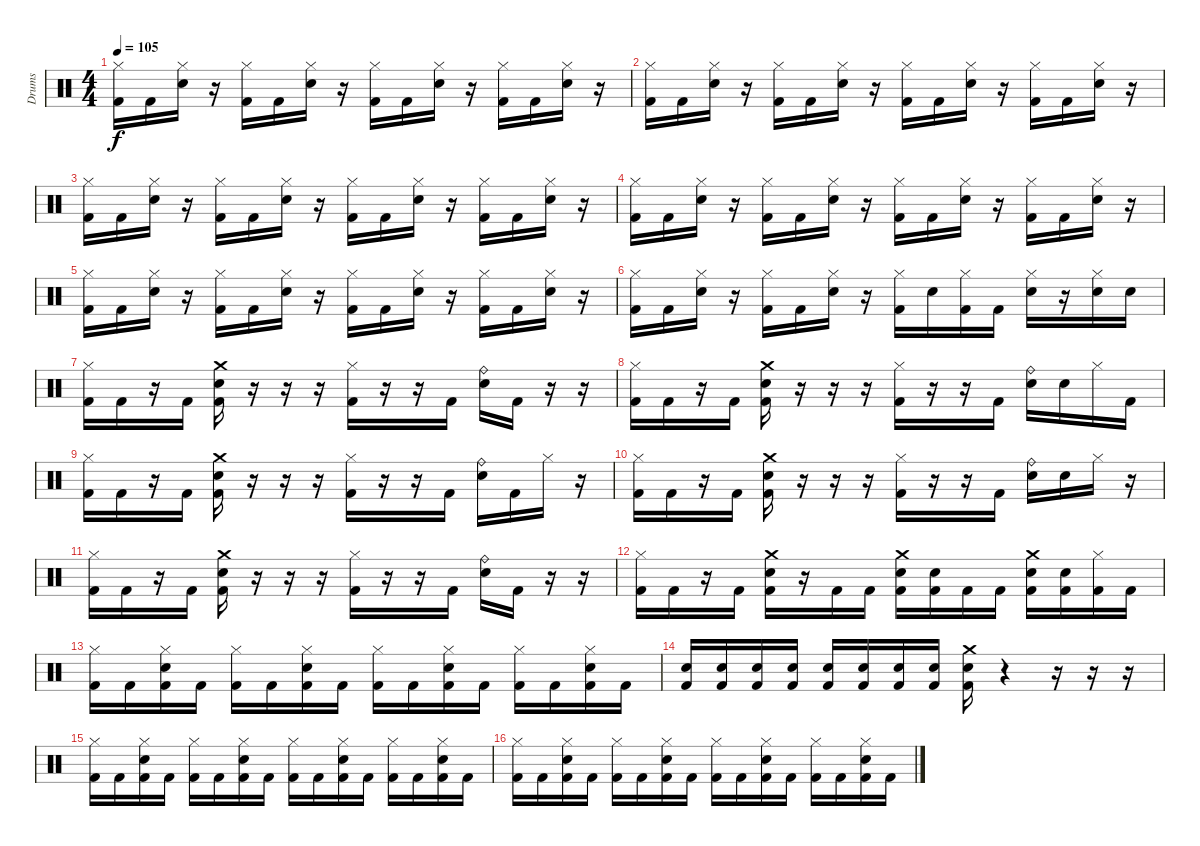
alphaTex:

\track ("Drums" "Drums") {instrument percussion}
\staff {score}
\articulation defaults
\ts (4 4)
\tempo 105
\clef neutral
\ks c
("Kick (hit) 2" "Hi-Hat (closed)").16{dy f} "Kick (hit) 2".16 ("Snare (hit) 2" "Hi-Hat (closed)").16 r.16 ("Kick (hit) 2" "Hi-Hat (closed)").16 "Kick (hit) 2".16 ("Snare (hit) 2" "Hi-Hat (closed)").16 r.16 ("Kick (hit) 2" "Hi-Hat (closed)").16 "Kick (hit) 2".16 ("Snare (hit) 2" "Hi-Hat (closed)").16 r.16 ("Kick (hit) 2" "Hi-Hat (closed)").16 "Kick (hit) 2".16 ("Snare (hit) 2" "Hi-Hat (closed)").16 r.16 |
("Kick (hit) 2" "Hi-Hat (closed)").16 "Kick (hit) 2".16 ("Snare (hit) 2" "Hi-Hat (closed)").16 r.16 ("Kick (hit) 2" "Hi-Hat (closed)").16 "Kick (hit) 2".16 ("Snare (hit) 2" "Hi-Hat (closed)").16 r.16 ("Kick (hit) 2" "Hi-Hat (closed)").16 "Kick (hit) 2".16 ("Snare (hit) 2" "Hi-Hat (closed)").16 r.16 ("Kick (hit) 2" "Hi-Hat (closed)").16 "Kick (hit) 2".16 ("Snare (hit) 2" "Hi-Hat (closed)").16 r.16 |
("Kick (hit) 2" "Hi-Hat (closed)").16 "Kick (hit) 2".16 ("Snare (hit) 2" "Hi-Hat (closed)").16 r.16 ("Kick (hit) 2" "Hi-Hat (closed)").16 "Kick (hit) 2".16 ("Snare (hit) 2" "Hi-Hat (closed)").16 r.16 ("Kick (hit) 2" "Hi-Hat (closed)").16 "Kick (hit) 2".16 ("Snare (hit) 2" "Hi-Hat (closed)").16 r.16 ("Kick (hit) 2" "Hi-Hat (closed)").16 "Kick (hit) 2".16 ("Snare (hit) 2" "Hi-Hat (closed)").16 r.16 |
("Kick (hit) 2" "Hi-Hat (closed)").16 "Kick (hit) 2".16 ("Snare (hit) 2" "Hi-Hat (closed)").16 r.16 ("Kick (hit) 2" "Hi-Hat (closed)").16 "Kick (hit) 2".16 ("Snare (hit) 2" "Hi-Hat (closed)").16 r.16 ("Kick (hit) 2" "Hi-Hat (closed)").16 "Kick (hit) 2".16 ("Snare (hit) 2" "Hi-Hat (closed)").16 r.16 ("Kick (hit) 2" "Hi-Hat (closed)").16 "Kick (hit) 2".16 ("Snare (hit) 2" "Hi-Hat (closed)").16 r.16 |
("Kick (hit) 2" "Hi-Hat (closed)").16 "Kick (hit) 2".16 ("Snare (hit) 2" "Hi-Hat (closed)").16 r.16 ("Kick (hit) 2" "Hi-Hat (closed)").16 "Kick (hit) 2".16 ("Snare (hit) 2" "Hi-Hat (closed)").16 r.16 ("Kick (hit) 2" "Hi-Hat (closed)").16 "Kick (hit) 2".16 ("Snare (hit) 2" "Hi-Hat (closed)").16 r.16 ("Kick (hit) 2" "Hi-Hat (closed)").16 "Kick (hit) 2".16 ("Snare (hit) 2" "Hi-Hat (closed)").16 r.16 |
("Kick (hit) 2" "Hi-Hat (closed)").16 "Kick (hit) 2".16 ("Snare (hit) 2" "Hi-Hat (closed)").16 r.16 ("Kick (hit) 2" "Hi-Hat (closed)").16 "Kick (hit) 2".16 ("Snare (hit) 2" "Hi-Hat (closed)").16 r.16 ("Kick (hit) 2" "Hi-Hat (closed)").16 "Snare (hit) 2".16 ("Kick (hit) 2" "Hi-Hat (closed)").16 "Kick (hit) 2".16 ("Snare (hit) 2" "Hi-Hat (closed)").16 r.16 ("Snare (hit) 2" "Hi-Hat (closed)").16 "Snare (hit) 2".16 |
("Kick (hit) 2" "Hi-Hat (closed)").16 "Kick (hit) 2".16 r.16 "Kick (hit) 2".16 ("Kick (hit) 2" "Snare (hit) 2" "Crash medium (hit)").16 r.16 r.16 r.16 ("Kick (hit) 2" "Hi-Hat (closed)").16 r.16 r.16 "Kick (hit) 2".16 ("Snare (hit) 2" "Ride (bell)").16 "Kick (hit) 2".16 r.16 r.16 |
("Kick (hit) 2" "Hi-Hat (closed)").16 "Kick (hit) 2".16 r.16 "Kick (hit) 2".16 ("Kick (hit) 2" "Snare (hit) 2" "Crash medium (hit)").16 r.16 r.16 r.16 ("Kick (hit) 2" "Hi-Hat (closed)").16 r.16 r.16 "Kick (hit) 2".16 ("Snare (hit) 2" "Ride (bell)").16 "Snare (hit) 2".16 "Hi-Hat (closed)".16 "Kick (hit) 2".16 |
("Kick (hit) 2" "Hi-Hat (closed)").16 "Kick (hit) 2".16 r.16 "Kick (hit) 2".16 ("Kick (hit) 2" "Snare (hit) 2" "Crash medium (hit)").16 r.16 r.16 r.16 ("Kick (hit) 2" "Hi-Hat (closed)").16 r.16 r.16 "Kick (hit) 2".16 ("Snare (hit) 2" "Ride (bell)").16 "Kick (hit) 2".16 "Hi-Hat (closed)".16 r.16 |
("Kick (hit) 2" "Hi-Hat (closed)").16 "Kick (hit) 2".16 r.16 "Kick (hit) 2".16 ("Kick (hit) 2" "Snare (hit) 2" "Crash medium (hit)").16 r.16 r.16 r.16 ("Kick (hit) 2" "Hi-Hat (closed)").16 r.16 r.16 "Kick (hit) 2".16 ("Snare (hit) 2" "Ride (bell)").16 "Snare (hit) 2".16 "Hi-Hat (closed)".16 r.16 |
("Kick (hit) 2" "Hi-Hat (closed)").16 "Kick (hit) 2".16 r.16 "Kick (hit) 2".16 ("Kick (hit) 2" "Snare (hit) 2" "Crash medium (hit)").16 r.16 r.16 r.16 ("Kick (hit) 2" "Hi-Hat (closed)").16 r.16 r.16 "Kick (hit) 2".16 ("Snare (hit) 2" "Ride (bell)").16 "Kick (hit) 2".16 r.16 r.16 |
("Kick (hit) 2" "Hi-Hat (closed)").16 "Kick (hit) 2".16 r.16 "Kick (hit) 2".16 ("Kick (hit) 2" "Snare (hit) 2" "Crash medium (hit)").16 r.16 "Kick (hit) 2".16 "Kick (hit) 2".16 ("Kick (hit) 2" "Snare (hit) 2" "Crash medium (hit)").16 ("Kick (hit) 2" "Snare (hit) 2").16 "Kick (hit) 2".16 "Kick (hit) 2".16 ("Kick (hit) 2" "Snare (hit) 2" "Crash medium (hit)").16 ("Kick (hit) 2" "Snare (hit) 2").16 ("Kick (hit) 2" "Hi-Hat (closed)").16 "Kick (hit) 2".16 |
("Kick (hit) 2" "Hi-Hat (closed)").16 "Kick (hit) 2".16 ("Kick (hit) 2" "Snare (hit) 2" "Hi-Hat (closed)").16 "Kick (hit) 2".16 ("Kick (hit) 2" "Hi-Hat (closed)").16 "Kick (hit) 2".16 ("Kick (hit) 2" "Snare (hit) 2" "Hi-Hat (closed)").16 "Kick (hit) 2".16 ("Kick (hit) 2" "Hi-Hat (closed)").16 "Kick (hit) 2".16 ("Kick (hit) 2" "Snare (hit) 2" "Hi-Hat (closed)").16 "Kick (hit) 2".16 ("Kick (hit) 2" "Hi-Hat (closed)").16 "Kick (hit) 2".16 ("Kick (hit) 2" "Snare (hit) 2" "Hi-Hat (closed)").16 "Kick (hit) 2".16{volume 4} |
("Kick (hit) 2" "Snare (hit) 2").16{volume 15} ("Kick (hit) 2" "Snare (hit) 2").16 ("Kick (hit) 2" "Snare (hit) 2").16 ("Kick (hit) 2" "Snare (hit) 2").16 ("Kick (hit) 2" "Snare (hit) 2").16 ("Kick (hit) 2" "Snare (hit) 2").16 ("Kick (hit) 2" "Snare (hit) 2").16 ("Kick (hit) 2" "Snare (hit) 2").16 ("Kick (hit) 2" "Snare (hit) 2" "Crash medium (hit)").16 r.4 r.16 r.16 r.16 |
("Kick (hit) 2" "Hi-Hat (closed)").16 "Kick (hit) 2".16 ("Kick (hit) 2" "Snare (hit) 2" "Hi-Hat (closed)").16 "Kick (hit) 2".16 ("Kick (hit) 2" "Hi-Hat (closed)").16 "Kick (hit) 2".16 ("Kick (hit) 2" "Snare (hit) 2" "Hi-Hat (closed)").16 "Kick (hit) 2".16 ("Kick (hit) 2" "Hi-Hat (closed)").16 "Kick (hit) 2".16 ("Kick (hit) 2" "Snare (hit) 2" "Hi-Hat (closed)").16 "Kick (hit) 2".16 ("Kick (hit) 2" "Hi-Hat (closed)").16 "Kick (hit) 2".16 ("Kick (hit) 2" "Snare (hit) 2" "Hi-Hat (closed)").16 "Kick (hit) 2".16 |
("Kick (hit) 2" "Hi-Hat (closed)").16 "Kick (hit) 2".16 ("Kick (hit) 2" "Snare (hit) 2" "Hi-Hat (closed)").16 "Kick (hit) 2".16 ("Kick (hit) 2" "Hi-Hat (closed)").16 "Kick (hit) 2".16 ("Kick (hit) 2" "Snare (hit) 2" "Hi-Hat (closed)").16 "Kick (hit) 2".16 ("Kick (hit) 2" "Hi-Hat (closed)").16 "Kick (hit) 2".16 ("Kick (hit) 2" "Snare (hit) 2" "Hi-Hat (closed)").16 "Kick (hit) 2".16 ("Kick (hit) 2" "Hi-Hat (closed)").16 "Kick (hit) 2".16 ("Kick (hit) 2" "Snare (hit) 2" "Hi-Hat (closed)").16 "Kick (hit) 2".16
